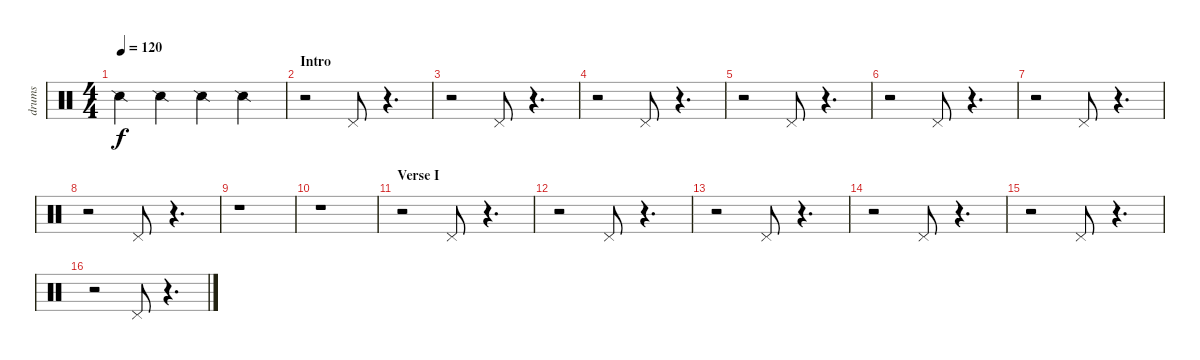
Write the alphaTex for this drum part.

\track ("drums" "drums") {instrument percussion}
\staff {score}
\articulation defaults
\ts (4 4)
\tempo 120
\clef neutral
\ks c "Snare (side stick) 2".4{dy f} "Snare (side stick) 2".4 "Snare (side stick) 2".4 "Snare (side stick) 2".4
|
\section ("" "Intro")
r.2 "Pedal Hi-Hat (hit)".8 r.4{d} |
r.2 "Pedal Hi-Hat (hit)".8 r.4{d} |
r.2 "Pedal Hi-Hat (hit)".8 r.4{d} |
r.2 "Pedal Hi-Hat (hit)".8 r.4{d} |
r.2 "Pedal Hi-Hat (hit)".8 r.4{d} |
r.2 "Pedal Hi-Hat (hit)".8 r.4{d} |
r.2 "Pedal Hi-Hat (hit)".8 r.4{d} |
r.1 |
r.1 |
\section ("" "Verse I")
r.2 "Pedal Hi-Hat (hit)".8 r.4{d} |
r.2 "Pedal Hi-Hat (hit)".8 r.4{d} |
r.2 "Pedal Hi-Hat (hit)".8 r.4{d} |
r.2 "Pedal Hi-Hat (hit)".8 r.4{d} |
r.2 "Pedal Hi-Hat (hit)".8 r.4{d} |
r.2 "Pedal Hi-Hat (hit)".8 r.4{d}
